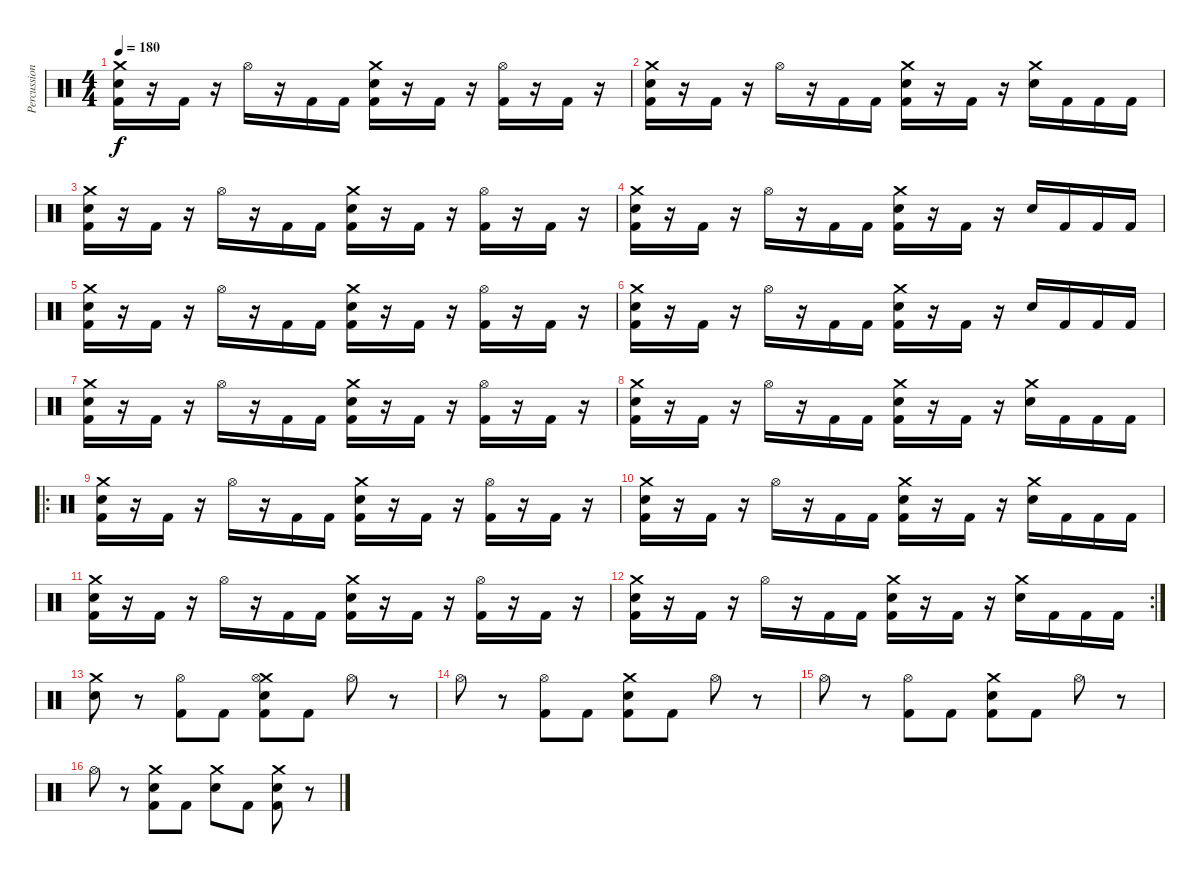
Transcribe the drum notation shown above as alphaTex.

\track ("Percussions" "Percussion") {instrument percussion}
\staff {score}
\articulation defaults
\ts (4 4)
\tempo 180
\clef neutral
\ks c
("Kick (hit) 2" "Snare (hit) 2" "Crash medium (hit)").16{dy f} r.16 "Kick (hit) 2".16 r.16 "Hi-Hat (open)".16 r.16 "Kick (hit) 2".16 "Kick (hit) 2".16 ("Kick (hit) 2" "Snare (hit) 2" "Crash medium (hit)").16 r.16 "Kick (hit) 2".16 r.16 ("Kick (hit) 2" "Hi-Hat (open)").16 r.16 "Kick (hit) 2".16 r.16 |
("Kick (hit) 2" "Snare (hit) 2" "Crash medium (hit)").16 r.16 "Kick (hit) 2".16 r.16 "Hi-Hat (open)".16 r.16 "Kick (hit) 2".16 "Kick (hit) 2".16 ("Kick (hit) 2" "Snare (hit) 2" "Crash medium (hit)").16 r.16 "Kick (hit) 2".16 r.16 ("Snare (hit) 2" "Crash medium (hit)").16 "Kick (hit) 2".16 "Kick (hit) 2".16 "Kick (hit) 2".16 |
("Kick (hit) 2" "Snare (hit) 2" "Crash medium (hit)").16 r.16 "Kick (hit) 2".16 r.16 "Hi-Hat (open)".16 r.16 "Kick (hit) 2".16 "Kick (hit) 2".16 ("Kick (hit) 2" "Snare (hit) 2" "Crash medium (hit)").16 r.16 "Kick (hit) 2".16 r.16 ("Kick (hit) 2" "Hi-Hat (open)").16 r.16 "Kick (hit) 2".16 r.16 |
("Kick (hit) 2" "Snare (hit) 2" "Crash medium (hit)").16 r.16 "Kick (hit) 2".16 r.16 "Hi-Hat (open)".16 r.16 "Kick (hit) 2".16 "Kick (hit) 2".16 ("Kick (hit) 2" "Snare (hit) 2" "Crash medium (hit)").16 r.16 "Kick (hit) 2".16 r.16 "Snare (hit) 2".16 "Kick (hit) 2".16 "Kick (hit) 2".16 "Kick (hit) 2".16 |
("Kick (hit) 2" "Snare (hit) 2" "Crash medium (hit)").16 r.16 "Kick (hit) 2".16 r.16 "Hi-Hat (open)".16 r.16 "Kick (hit) 2".16 "Kick (hit) 2".16 ("Kick (hit) 2" "Snare (hit) 2" "Crash medium (hit)").16 r.16 "Kick (hit) 2".16 r.16 ("Kick (hit) 2" "Hi-Hat (open)").16 r.16 "Kick (hit) 2".16 r.16 |
("Kick (hit) 2" "Snare (hit) 2" "Crash medium (hit)").16 r.16 "Kick (hit) 2".16 r.16 "Hi-Hat (open)".16 r.16 "Kick (hit) 2".16 "Kick (hit) 2".16 ("Kick (hit) 2" "Snare (hit) 2" "Crash medium (hit)").16 r.16 "Kick (hit) 2".16 r.16 "Snare (hit) 2".16 "Kick (hit) 2".16 "Kick (hit) 2".16 "Kick (hit) 2".16 |
("Kick (hit) 2" "Snare (hit) 2" "Crash medium (hit)").16 r.16 "Kick (hit) 2".16 r.16 "Hi-Hat (open)".16 r.16 "Kick (hit) 2".16 "Kick (hit) 2".16 ("Kick (hit) 2" "Snare (hit) 2" "Crash medium (hit)").16 r.16 "Kick (hit) 2".16 r.16 ("Kick (hit) 2" "Hi-Hat (open)").16 r.16 "Kick (hit) 2".16 r.16 |
("Kick (hit) 2" "Snare (hit) 2" "Crash medium (hit)").16 r.16 "Kick (hit) 2".16 r.16 "Hi-Hat (open)".16 r.16 "Kick (hit) 2".16 "Kick (hit) 2".16 ("Kick (hit) 2" "Snare (hit) 2" "Crash medium (hit)").16 r.16 "Kick (hit) 2".16 r.16 ("Snare (hit) 2" "Crash medium (hit)").16 "Kick (hit) 2".16 "Kick (hit) 2".16 "Kick (hit) 2".16 |
\ro
("Kick (hit) 2" "Snare (hit) 2" "Crash medium (hit)").16 r.16 "Kick (hit) 2".16 r.16 "Hi-Hat (open)".16 r.16 "Kick (hit) 2".16 "Kick (hit) 2".16 ("Kick (hit) 2" "Snare (hit) 2" "Crash medium (hit)").16 r.16 "Kick (hit) 2".16 r.16 ("Kick (hit) 2" "Hi-Hat (open)").16 r.16 "Kick (hit) 2".16 r.16 |
("Kick (hit) 2" "Snare (hit) 2" "Crash medium (hit)").16 r.16 "Kick (hit) 2".16 r.16 "Hi-Hat (open)".16 r.16 "Kick (hit) 2".16 "Kick (hit) 2".16 ("Kick (hit) 2" "Snare (hit) 2" "Crash medium (hit)").16 r.16 "Kick (hit) 2".16 r.16 ("Snare (hit) 2" "Crash medium (hit)").16 "Kick (hit) 2".16 "Kick (hit) 2".16 "Kick (hit) 2".16 |
("Kick (hit) 2" "Snare (hit) 2" "Crash medium (hit)").16 r.16 "Kick (hit) 2".16 r.16 "Hi-Hat (open)".16 r.16 "Kick (hit) 2".16 "Kick (hit) 2".16 ("Kick (hit) 2" "Snare (hit) 2" "Crash medium (hit)").16 r.16 "Kick (hit) 2".16 r.16 ("Kick (hit) 2" "Hi-Hat (open)").16 r.16 "Kick (hit) 2".16 r.16 |
\rc 2
("Kick (hit) 2" "Snare (hit) 2" "Crash medium (hit)").16 r.16 "Kick (hit) 2".16 r.16 "Hi-Hat (open)".16 r.16 "Kick (hit) 2".16 "Kick (hit) 2".16 ("Kick (hit) 2" "Snare (hit) 2" "Crash medium (hit)").16 r.16 "Kick (hit) 2".16 r.16 ("Snare (hit) 2" "Crash medium (hit)").16 "Kick (hit) 2".16 "Kick (hit) 2".16 "Kick (hit) 2".16 |
("Snare (hit) 2" "Crash medium (hit)").8 r.8 ("Hi-Hat (open)" "Kick (hit) 2").8 "Kick (hit) 2".8 ("Snare (hit) 2" "Crash medium (hit)" "Hi-Hat (open)" "Kick (hit) 2").8 "Kick (hit) 2".8 "Hi-Hat (open)".8 r.8 |
"Hi-Hat (open)".8 r.8 ("Hi-Hat (open)" "Kick (hit) 2").8 "Kick (hit) 2".8 ("Snare (hit) 2" "Crash medium (hit)" "Kick (hit) 2").8 "Kick (hit) 2".8 "Hi-Hat (open)".8 r.8 |
"Hi-Hat (open)".8 r.8 ("Hi-Hat (open)" "Kick (hit) 2").8 "Kick (hit) 2".8 ("Snare (hit) 2" "Crash medium (hit)" "Kick (hit) 2").8 "Kick (hit) 2".8 "Hi-Hat (open)".8 r.8 |
"Hi-Hat (open)".8 r.8 ("Snare (hit) 2" "Crash medium (hit)" "Kick (hit) 2").8 "Kick (hit) 2".8 ("Snare (hit) 2" "Crash medium (hit)").8 "Kick (hit) 2".8 ("Snare (hit) 2" "Crash medium (hit)" "Kick (hit) 2").8 r.8
